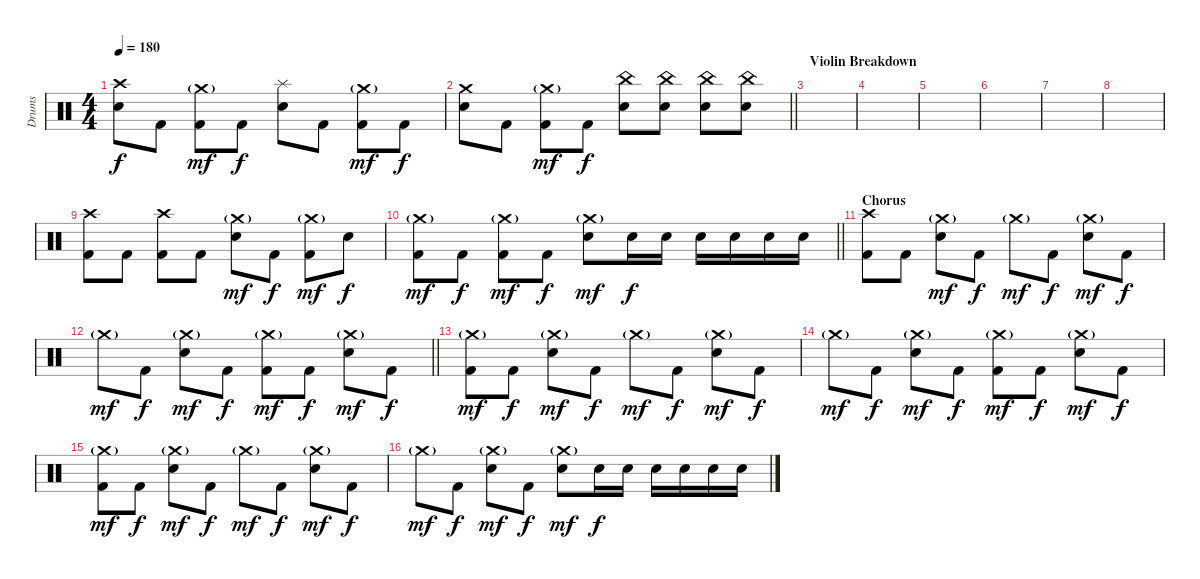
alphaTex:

\track ("Drums" "Drums") {instrument percussion}
\staff {score}
\articulation defaults
\ts (4 4)
\tempo 180
\clef neutral
\ks c
("Crash high (hit)" "Electric Snare (hit)").8{dy f} "Kick (hit) 2".8 ("Crash medium (hit)"{g} "Kick (hit) 2").8{dy mf} "Kick (hit) 2".8{dy f} ("Splash (hit)" "Electric Snare (hit)").8 "Kick (hit) 2".8 ("Crash medium (hit)"{g} "Kick (hit) 2").8{dy mf} "Kick (hit) 2".8{dy f} |
\barLineRight lightlight
("Crash medium (hit)" "Electric Snare (hit)").8 "Kick (hit) 2".8 ("Crash medium (hit)"{g} "Kick (hit) 2").8{dy mf} "Kick (hit) 2".8{dy f} ("China (hit)" "Electric Snare (hit)").8 ("China (hit)" "Electric Snare (hit)").8 ("China (hit)" "Electric Snare (hit)").8 ("China (hit)" "Electric Snare (hit)").8 |
\section ("" "Violin Breakdown")
|
|
|
|
|
|
("Crash high (hit)" "Kick (hit) 2").8 "Kick (hit) 2".8 ("Crash high (hit)" "Kick (hit) 2").8 "Kick (hit) 2".8 ("Crash medium (hit)"{g} "Electric Snare (hit)").8{dy mf} "Kick (hit) 2".8{dy f} ("Crash medium (hit)"{g} "Kick (hit) 2").8{dy mf} "Electric Snare (hit)".8{dy f} |
\barLineRight lightlight
("Crash medium (hit)"{g} "Kick (hit) 2").8{dy mf} "Kick (hit) 2".8{dy f} ("Crash medium (hit)"{g} "Kick (hit) 2").8{dy mf} "Kick (hit) 2".8{dy f} ("Crash medium (hit)"{g} "Electric Snare (hit)").8{dy mf} "Electric Snare (hit)".16{dy f} "Electric Snare (hit)".16 "Electric Snare (hit)".16 "Electric Snare (hit)".16 "Electric Snare (hit)".16 "Electric Snare (hit)".16 |
\section ("" "Chorus")
("Crash high (hit)" "Kick (hit) 2").8 "Kick (hit) 2".8 ("Crash medium (hit)"{g} "Electric Snare (hit)").8{dy mf} "Kick (hit) 2".8{dy f} "Crash medium (hit)"{g}.8{dy mf} "Kick (hit) 2".8{dy f} ("Crash medium (hit)"{g} "Electric Snare (hit)").8{dy mf} "Kick (hit) 2".8{dy f} |
\barLineRight lightlight "Crash medium (hit)"{g}.8{dy mf} "Kick (hit) 2".8{dy f}
("Crash medium (hit)"{g} "Electric Snare (hit)").8{dy mf} "Kick (hit) 2".8{dy f} ("Crash medium (hit)"{g} "Kick (hit) 2").8{dy mf} "Kick (hit) 2".8{dy f} ("Crash medium (hit)"{g} "Electric Snare (hit)").8{dy mf} "Kick (hit) 2".8{dy f} |
("Crash medium (hit)"{g} "Kick (hit) 2").8{dy mf} "Kick (hit) 2".8{dy f} ("Crash medium (hit)"{g} "Electric Snare (hit)").8{dy mf} "Kick (hit) 2".8{dy f} "Crash medium (hit)"{g}.8{dy mf} "Kick (hit) 2".8{dy f} ("Crash medium (hit)"{g} "Electric Snare (hit)").8{dy mf} "Kick (hit) 2".8{dy f} |
"Crash medium (hit)"{g}.8{dy mf} "Kick (hit) 2".8{dy f} ("Crash medium (hit)"{g} "Electric Snare (hit)").8{dy mf} "Kick (hit) 2".8{dy f} ("Crash medium (hit)"{g} "Kick (hit) 2").8{dy mf} "Kick (hit) 2".8{dy f} ("Crash medium (hit)"{g} "Electric Snare (hit)").8{dy mf} "Kick (hit) 2".8{dy f} |
("Crash medium (hit)"{g} "Kick (hit) 2").8{dy mf} "Kick (hit) 2".8{dy f} ("Crash medium (hit)"{g} "Electric Snare (hit)").8{dy mf} "Kick (hit) 2".8{dy f} "Crash medium (hit)"{g}.8{dy mf} "Kick (hit) 2".8{dy f} ("Crash medium (hit)"{g} "Electric Snare (hit)").8{dy mf} "Kick (hit) 2".8{dy f} |
"Crash medium (hit)"{g}.8{dy mf} "Kick (hit) 2".8{dy f} ("Crash medium (hit)"{g} "Electric Snare (hit)").8{dy mf} "Kick (hit) 2".8{dy f} ("Crash medium (hit)"{g} "Electric Snare (hit)").8{dy mf} "Electric Snare (hit)".16{dy f} "Electric Snare (hit)".16 "Electric Snare (hit)".16 "Electric Snare (hit)".16 "Electric Snare (hit)".16 "Electric Snare (hit)".16
